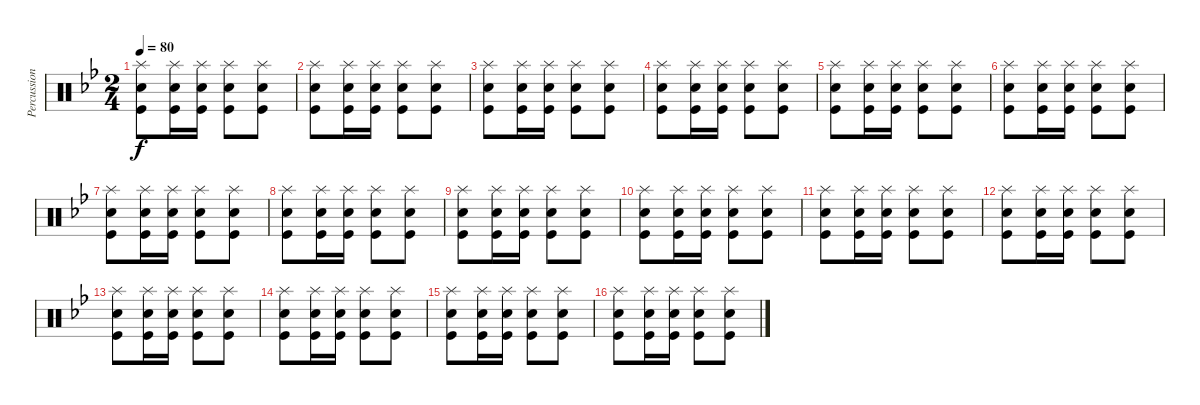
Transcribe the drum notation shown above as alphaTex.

\track ("Percussion" "Percussion") {instrument percussion}
\staff {score}
\articulation defaults
\ts (2 4)
\tempo 80
\clef neutral
\ks bb
("Splash (hit)" "Kick (hit)" "Snare (hit) 2").8{dy f} ("Splash (hit)" "Kick (hit)" "Snare (hit) 2").16 ("Splash (hit)" "Kick (hit)" "Snare (hit) 2").16 ("Splash (hit)" "Kick (hit)" "Snare (hit) 2").8 ("Splash (hit)" "Kick (hit)" "Snare (hit) 2").8 |
("Splash (hit)" "Kick (hit)" "Snare (hit) 2").8 ("Splash (hit)" "Kick (hit)" "Snare (hit) 2").16 ("Splash (hit)" "Kick (hit)" "Snare (hit) 2").16 ("Splash (hit)" "Kick (hit)" "Snare (hit) 2").8 ("Splash (hit)" "Kick (hit)" "Snare (hit) 2").8 |
("Splash (hit)" "Kick (hit)" "Snare (hit) 2").8 ("Splash (hit)" "Kick (hit)" "Snare (hit) 2").16 ("Splash (hit)" "Kick (hit)" "Snare (hit) 2").16 ("Splash (hit)" "Kick (hit)" "Snare (hit) 2").8 ("Splash (hit)" "Kick (hit)" "Snare (hit) 2").8 |
("Splash (hit)" "Kick (hit)" "Snare (hit) 2").8 ("Splash (hit)" "Kick (hit)" "Snare (hit) 2").16 ("Splash (hit)" "Kick (hit)" "Snare (hit) 2").16 ("Splash (hit)" "Kick (hit)" "Snare (hit) 2").8 ("Splash (hit)" "Kick (hit)" "Snare (hit) 2").8 |
("Splash (hit)" "Kick (hit)" "Snare (hit) 2").8 ("Splash (hit)" "Kick (hit)" "Snare (hit) 2").16 ("Splash (hit)" "Kick (hit)" "Snare (hit) 2").16 ("Splash (hit)" "Kick (hit)" "Snare (hit) 2").8 ("Splash (hit)" "Kick (hit)" "Snare (hit) 2").8 |
("Splash (hit)" "Kick (hit)" "Snare (hit) 2").8 ("Splash (hit)" "Kick (hit)" "Snare (hit) 2").16 ("Splash (hit)" "Kick (hit)" "Snare (hit) 2").16 ("Splash (hit)" "Kick (hit)" "Snare (hit) 2").8 ("Splash (hit)" "Kick (hit)" "Snare (hit) 2").8 |
("Splash (hit)" "Kick (hit)" "Snare (hit) 2").8 ("Splash (hit)" "Kick (hit)" "Snare (hit) 2").16 ("Splash (hit)" "Kick (hit)" "Snare (hit) 2").16 ("Splash (hit)" "Kick (hit)" "Snare (hit) 2").8 ("Splash (hit)" "Kick (hit)" "Snare (hit) 2").8 |
("Splash (hit)" "Kick (hit)" "Snare (hit) 2").8 ("Splash (hit)" "Kick (hit)" "Snare (hit) 2").16 ("Splash (hit)" "Kick (hit)" "Snare (hit) 2").16 ("Splash (hit)" "Kick (hit)" "Snare (hit) 2").8 ("Splash (hit)" "Kick (hit)" "Snare (hit) 2").8 |
("Splash (hit)" "Kick (hit)" "Snare (hit) 2").8 ("Splash (hit)" "Kick (hit)" "Snare (hit) 2").16 ("Splash (hit)" "Kick (hit)" "Snare (hit) 2").16 ("Splash (hit)" "Kick (hit)" "Snare (hit) 2").8 ("Splash (hit)" "Kick (hit)" "Snare (hit) 2").8 |
("Splash (hit)" "Kick (hit)" "Snare (hit) 2").8 ("Splash (hit)" "Kick (hit)" "Snare (hit) 2").16 ("Splash (hit)" "Kick (hit)" "Snare (hit) 2").16 ("Splash (hit)" "Kick (hit)" "Snare (hit) 2").8 ("Splash (hit)" "Kick (hit)" "Snare (hit) 2").8 |
("Splash (hit)" "Kick (hit)" "Snare (hit) 2").8 ("Splash (hit)" "Kick (hit)" "Snare (hit) 2").16 ("Splash (hit)" "Kick (hit)" "Snare (hit) 2").16 ("Splash (hit)" "Kick (hit)" "Snare (hit) 2").8 ("Splash (hit)" "Kick (hit)" "Snare (hit) 2").8 |
("Splash (hit)" "Kick (hit)" "Snare (hit) 2").8 ("Splash (hit)" "Kick (hit)" "Snare (hit) 2").16 ("Splash (hit)" "Kick (hit)" "Snare (hit) 2").16 ("Splash (hit)" "Kick (hit)" "Snare (hit) 2").8 ("Splash (hit)" "Kick (hit)" "Snare (hit) 2").8 |
("Splash (hit)" "Kick (hit)" "Snare (hit) 2").8 ("Splash (hit)" "Kick (hit)" "Snare (hit) 2").16 ("Splash (hit)" "Kick (hit)" "Snare (hit) 2").16 ("Splash (hit)" "Kick (hit)" "Snare (hit) 2").8 ("Splash (hit)" "Kick (hit)" "Snare (hit) 2").8 |
("Splash (hit)" "Kick (hit)" "Snare (hit) 2").8 ("Splash (hit)" "Kick (hit)" "Snare (hit) 2").16 ("Splash (hit)" "Kick (hit)" "Snare (hit) 2").16 ("Splash (hit)" "Kick (hit)" "Snare (hit) 2").8 ("Splash (hit)" "Kick (hit)" "Snare (hit) 2").8 |
("Splash (hit)" "Kick (hit)" "Snare (hit) 2").8 ("Splash (hit)" "Kick (hit)" "Snare (hit) 2").16 ("Splash (hit)" "Kick (hit)" "Snare (hit) 2").16 ("Splash (hit)" "Kick (hit)" "Snare (hit) 2").8 ("Splash (hit)" "Kick (hit)" "Snare (hit) 2").8 |
("Splash (hit)" "Kick (hit)" "Snare (hit) 2").8 ("Splash (hit)" "Kick (hit)" "Snare (hit) 2").16 ("Splash (hit)" "Kick (hit)" "Snare (hit) 2").16 ("Splash (hit)" "Kick (hit)" "Snare (hit) 2").8 ("Splash (hit)" "Kick (hit)" "Snare (hit) 2").8
